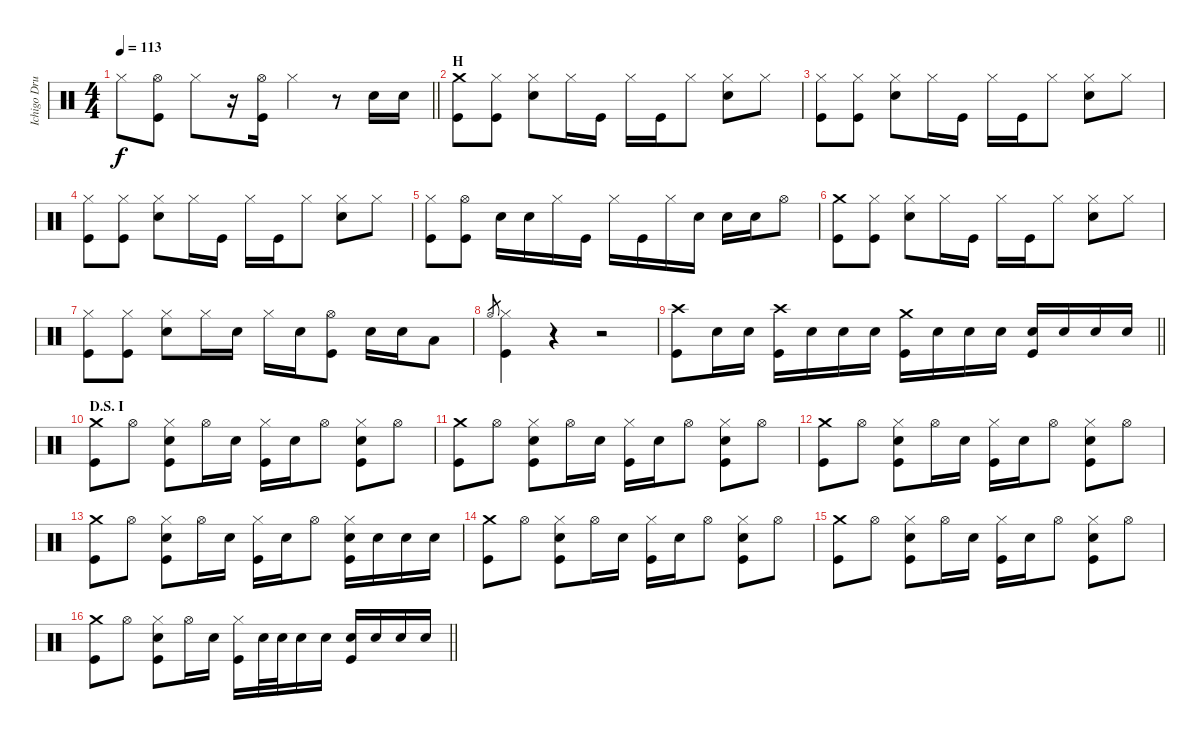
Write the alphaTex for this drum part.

\track ("Ichigo Drums" "Ichigo Dru") {instrument percussion}
\staff {score}
\articulation defaults
\ts (4 4)
\tempo 113
\clef neutral
\barLineRight lightlight
\ks c "Hi-Hat (closed)".8{dy f}
("Hi-Hat (open)" "Kick (hit)").8 "Hi-Hat (closed)".8 r.16 ("Hi-Hat (open)" "Kick (hit)").16 "Hi-Hat (closed)".4 r.8 "Snare (hit) 2".16 "Snare (hit) 2".16 |
\section ("" "H")
("Crash medium (hit)" "Kick (hit)").8 ("Hi-Hat (closed)" "Kick (hit)").8 ("Hi-Hat (closed)" "Snare (hit) 2").8 "Hi-Hat (closed)".16 "Kick (hit)".16 "Hi-Hat (closed)".16 "Kick (hit)".16 "Hi-Hat (closed)".8 ("Hi-Hat (closed)" "Snare (hit) 2").8 "Hi-Hat (closed)".8 |
("Hi-Hat (closed)" "Kick (hit)").8 ("Hi-Hat (closed)" "Kick (hit)").8 ("Hi-Hat (closed)" "Snare (hit) 2").8 "Hi-Hat (closed)".16 "Kick (hit)".16 "Hi-Hat (closed)".16 "Kick (hit)".16 "Hi-Hat (closed)".8 ("Hi-Hat (closed)" "Snare (hit) 2").8 "Hi-Hat (closed)".8 |
("Hi-Hat (closed)" "Kick (hit)").8 ("Hi-Hat (closed)" "Kick (hit)").8 ("Hi-Hat (closed)" "Snare (hit) 2").8 "Hi-Hat (closed)".16 "Kick (hit)".16 "Hi-Hat (closed)".16 "Kick (hit)".16 "Hi-Hat (closed)".8 ("Hi-Hat (closed)" "Snare (hit) 2").8 "Hi-Hat (closed)".8 |
("Hi-Hat (closed)" "Kick (hit)").8 ("Hi-Hat (open)" "Kick (hit)").8 "Snare (hit) 2".16 "Snare (hit) 2".16 "Hi-Hat (closed)".16 "Kick (hit)".16 "Hi-Hat (closed)".16 "Kick (hit)".16 "Hi-Hat (closed)".16 "Snare (hit) 2".16 "Snare (hit) 2".16 "Snare (hit) 2".16 "Hi-Hat (open)".8 |
("Crash medium (hit)" "Kick (hit)").8 ("Hi-Hat (closed)" "Kick (hit)").8 ("Hi-Hat (closed)" "Snare (hit) 2").8 "Hi-Hat (closed)".16 "Kick (hit)".16 "Hi-Hat (closed)".16 "Kick (hit)".16 "Hi-Hat (closed)".8 ("Hi-Hat (closed)" "Snare (hit) 2").8 "Hi-Hat (closed)".8 |
("Hi-Hat (closed)" "Kick (hit)").8 ("Hi-Hat (closed)" "Kick (hit)").8 ("Hi-Hat (closed)" "Snare (hit) 2").8 "Hi-Hat (closed)".16 "Snare (hit) 2".16 "Hi-Hat (closed)".16 "Snare (hit) 2".16 ("Hi-Hat (open)" "Kick (hit)").8 "Snare (hit) 2".16 "Snare (hit) 2".16 "Low Tom (hit)".8 |
"Hi-Hat (open)".8{gr} ("Hi-Hat (closed)" "Kick (hit)").4 r.4 r.2 |
\barLineRight lightlight
("Crash high (hit)" "Kick (hit)").8 "Snare (hit) 2".16 "Snare (hit) 2".16 ("Crash high (hit)" "Kick (hit)").16 "Snare (hit) 2".16 "Snare (hit) 2".16 "Snare (hit) 2".16 ("Crash medium (hit)" "Kick (hit)").16 "Snare (hit) 2".16 "Snare (hit) 2".16 "Snare (hit) 2".16 ("Snare (hit) 2" "Kick (hit)").16 "Snare (hit) 2".16 "Snare (hit) 2".16 "Snare (hit) 2".16 |
\section ("" "D.S. I")
("Crash medium (hit)" "Kick (hit)").8 "Hi-Hat (open)".8 ("Hi-Hat (closed)" "Snare (hit) 2" "Kick (hit)").8 "Hi-Hat (open)".16 "Snare (hit) 2".16 ("Hi-Hat (closed)" "Kick (hit)").16 "Snare (hit) 2".16 "Hi-Hat (open)".8 ("Hi-Hat (closed)" "Snare (hit) 2" "Kick (hit)").8 "Hi-Hat (open)".8 |
("Crash medium (hit)" "Kick (hit)").8 "Hi-Hat (open)".8 ("Hi-Hat (closed)" "Snare (hit) 2" "Kick (hit)").8 "Hi-Hat (open)".16 "Snare (hit) 2".16 ("Hi-Hat (closed)" "Kick (hit)").16 "Snare (hit) 2".16 "Hi-Hat (open)".8 ("Hi-Hat (closed)" "Snare (hit) 2" "Kick (hit)").8 "Hi-Hat (open)".8 |
("Crash medium (hit)" "Kick (hit)").8 "Hi-Hat (open)".8 ("Hi-Hat (closed)" "Snare (hit) 2" "Kick (hit)").8 "Hi-Hat (open)".16 "Snare (hit) 2".16 ("Hi-Hat (closed)" "Kick (hit)").16 "Snare (hit) 2".16 "Hi-Hat (open)".8 ("Hi-Hat (closed)" "Snare (hit) 2" "Kick (hit)").8 "Hi-Hat (open)".8 |
("Crash medium (hit)" "Kick (hit)").8 "Hi-Hat (open)".8 ("Hi-Hat (closed)" "Snare (hit) 2" "Kick (hit)").8 "Hi-Hat (open)".16 "Snare (hit) 2".16 ("Hi-Hat (closed)" "Kick (hit)").16 "Snare (hit) 2".16 "Hi-Hat (open)".8 ("Hi-Hat (closed)" "Snare (hit) 2" "Kick (hit)").16 "Snare (hit) 2".16 "Snare (hit) 2".16 "Snare (hit) 2".16 |
("Crash medium (hit)" "Kick (hit)").8 "Hi-Hat (open)".8 ("Hi-Hat (closed)" "Snare (hit) 2" "Kick (hit)").8 "Hi-Hat (open)".16 "Snare (hit) 2".16 ("Hi-Hat (closed)" "Kick (hit)").16 "Snare (hit) 2".16 "Hi-Hat (open)".8 ("Hi-Hat (closed)" "Snare (hit) 2" "Kick (hit)").8 "Hi-Hat (open)".8 |
("Crash medium (hit)" "Kick (hit)").8 "Hi-Hat (open)".8 ("Hi-Hat (closed)" "Snare (hit) 2" "Kick (hit)").8 "Hi-Hat (open)".16 "Snare (hit) 2".16 ("Hi-Hat (closed)" "Kick (hit)").16 "Snare (hit) 2".16 "Hi-Hat (open)".8 ("Hi-Hat (closed)" "Snare (hit) 2" "Kick (hit)").8 "Hi-Hat (open)".8 |
\barLineRight lightlight
("Crash medium (hit)" "Kick (hit)").8 "Hi-Hat (open)".8 ("Hi-Hat (closed)" "Snare (hit) 2" "Kick (hit)").8 "Hi-Hat (open)".16 "Snare (hit) 2".16 ("Hi-Hat (closed)" "Kick (hit)").16 "Snare (hit) 2".32 "Snare (hit) 2".32 "Snare (hit) 2".16 "Snare (hit) 2".16 ("Snare (hit) 2" "Kick (hit)").16 "Snare (hit) 2".16 "Snare (hit) 2".16 "Snare (hit) 2".16
